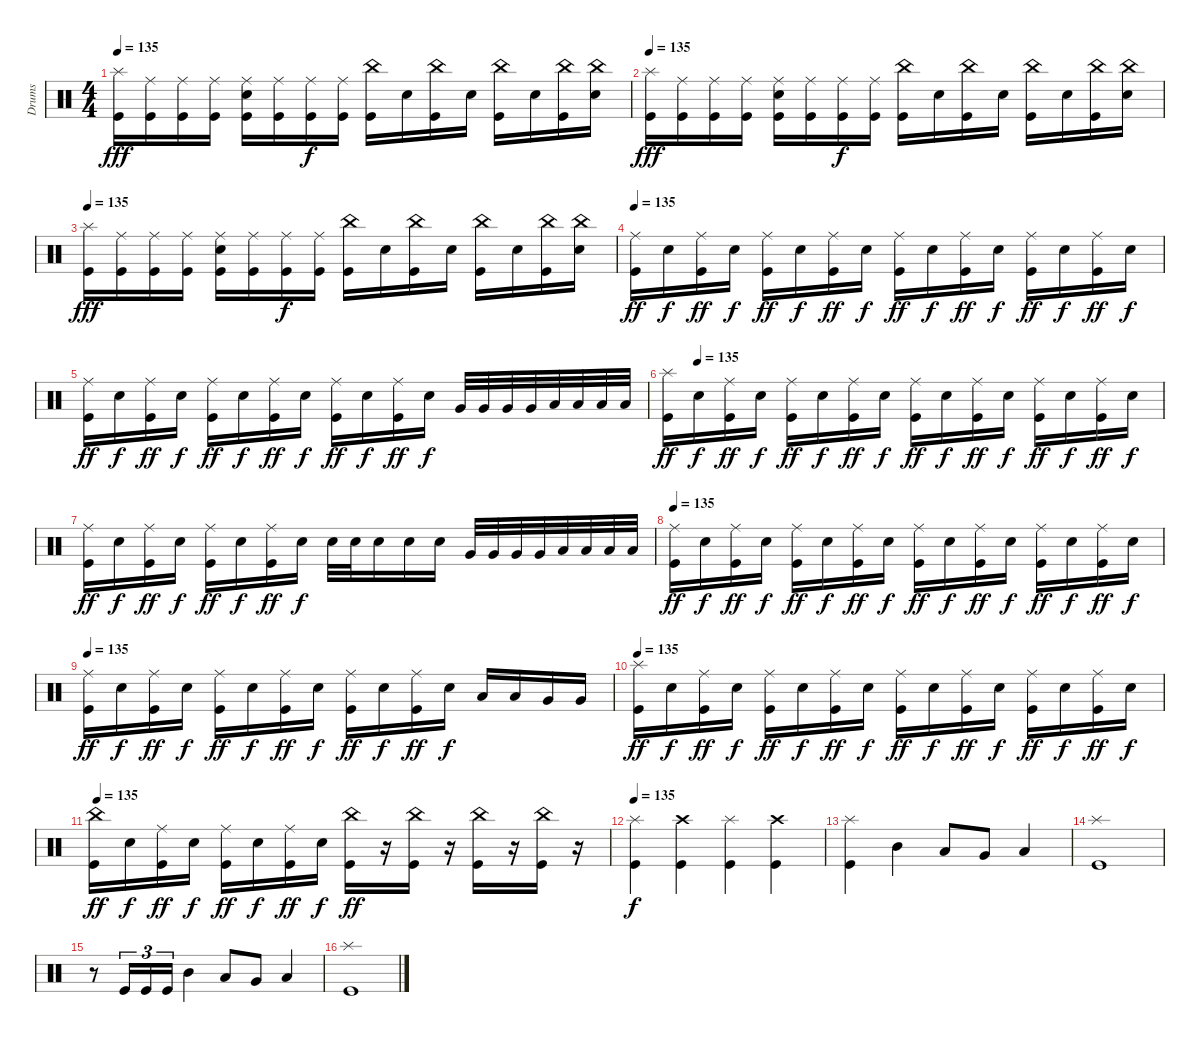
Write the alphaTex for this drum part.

\track ("Drums" "Drums") {instrument percussion}
\staff {score}
\articulation defaults
\ts (4 4)
\tempo 135
\clef neutral
\ks c
("Splash (hit)" "Kick (hit)").16{dy fff} ("Ride (middle)" "Kick (hit)").16 ("Ride (middle)" "Kick (hit)").16 ("Ride (middle)" "Kick (hit)").16 ("Ride (middle)" "Electric Snare (hit)" "Kick (hit)").16 ("Ride (middle)" "Kick (hit)").16 ("Ride (middle)" "Kick (hit)").16{dy f} ("Ride (middle)" "Kick (hit)").16 ("China (hit)" "Kick (hit)").16 "Electric Snare (hit)".16 ("China (hit)" "Kick (hit)").16 "Electric Snare (hit)".16 ("China (hit)" "Kick (hit)").16 "Electric Snare (hit)".16 ("China (hit)" "Kick (hit)").16 ("China (hit)" "Electric Snare (hit)").16 |
\tempo 135
("Splash (hit)" "Kick (hit)").16{dy fff} ("Ride (middle)" "Kick (hit)").16 ("Ride (middle)" "Kick (hit)").16 ("Ride (middle)" "Kick (hit)").16 ("Ride (middle)" "Electric Snare (hit)" "Kick (hit)").16 ("Ride (middle)" "Kick (hit)").16 ("Ride (middle)" "Kick (hit)").16{dy f} ("Ride (middle)" "Kick (hit)").16 ("China (hit)" "Kick (hit)").16 "Electric Snare (hit)".16 ("China (hit)" "Kick (hit)").16 "Electric Snare (hit)".16 ("China (hit)" "Kick (hit)").16 "Electric Snare (hit)".16 ("China (hit)" "Kick (hit)").16 ("China (hit)" "Electric Snare (hit)").16 |
\tempo 135
("Splash (hit)" "Kick (hit)").16{dy fff} ("Ride (middle)" "Kick (hit)").16 ("Ride (middle)" "Kick (hit)").16 ("Ride (middle)" "Kick (hit)").16 ("Ride (middle)" "Electric Snare (hit)" "Kick (hit)").16 ("Ride (middle)" "Kick (hit)").16 ("Ride (middle)" "Kick (hit)").16{dy f} ("Ride (middle)" "Kick (hit)").16 ("China (hit)" "Kick (hit)").16 "Electric Snare (hit)".16 ("China (hit)" "Kick (hit)").16 "Electric Snare (hit)".16 ("China (hit)" "Kick (hit)").16 "Electric Snare (hit)".16 ("China (hit)" "Kick (hit)").16 ("China (hit)" "Electric Snare (hit)").16 |
\tempo 135
("Ride (middle)" "Kick (hit)").16{dy ff} "Electric Snare (hit)".16{dy f} ("Ride (middle)" "Kick (hit)").16{dy ff} "Electric Snare (hit)".16{dy f} ("Ride (middle)" "Kick (hit)").16{dy ff} "Electric Snare (hit)".16{dy f} ("Ride (middle)" "Kick (hit)").16{dy ff} "Electric Snare (hit)".16{dy f} ("Ride (middle)" "Kick (hit)").16{dy ff} "Electric Snare (hit)".16{dy f} ("Ride (middle)" "Kick (hit)").16{dy ff} "Electric Snare (hit)".16{dy f} ("Ride (middle)" "Kick (hit)").16{dy ff} "Electric Snare (hit)".16{dy f} ("Ride (middle)" "Kick (hit)").16{dy ff} "Electric Snare (hit)".16{dy f} |
("Ride (middle)" "Kick (hit)").16{dy ff} "Electric Snare (hit)".16{dy f} ("Ride (middle)" "Kick (hit)").16{dy ff} "Electric Snare (hit)".16{dy f} ("Ride (middle)" "Kick (hit)").16{dy ff} "Electric Snare (hit)".16{dy f} ("Ride (middle)" "Kick (hit)").16{dy ff} "Electric Snare (hit)".16{dy f} ("Ride (middle)" "Kick (hit)").16{dy ff} "Electric Snare (hit)".16{dy f} ("Ride (middle)" "Kick (hit)").16{dy ff} "Electric Snare (hit)".16{dy f} "Very Low Tom (hit)".32 "Very Low Tom (hit)".32 "Very Low Tom (hit)".32 "Very Low Tom (hit)".32 "Low Floor Tom (hit)".32 "Low Floor Tom (hit)".32 "Low Floor Tom (hit)".32 "Low Floor Tom (hit)".32 |
\tempo (135 0.0625)
("Splash (hit)" "Kick (hit)").16{dy ff} "Electric Snare (hit)".16{dy f} ("Ride (middle)" "Kick (hit)").16{dy ff} "Electric Snare (hit)".16{dy f} ("Ride (middle)" "Kick (hit)").16{dy ff} "Electric Snare (hit)".16{dy f} ("Ride (middle)" "Kick (hit)").16{dy ff} "Electric Snare (hit)".16{dy f} ("Ride (middle)" "Kick (hit)").16{dy ff} "Electric Snare (hit)".16{dy f} ("Ride (middle)" "Kick (hit)").16{dy ff} "Electric Snare (hit)".16{dy f} ("Ride (middle)" "Kick (hit)").16{dy ff} "Electric Snare (hit)".16{dy f} ("Ride (middle)" "Kick (hit)").16{dy ff} "Electric Snare (hit)".16{dy f} |
("Ride (middle)" "Kick (hit)").16{dy ff} "Electric Snare (hit)".16{dy f} ("Ride (middle)" "Kick (hit)").16{dy ff} "Electric Snare (hit)".16{dy f} ("Ride (middle)" "Kick (hit)").16{dy ff} "Electric Snare (hit)".16{dy f} ("Ride (middle)" "Kick (hit)").16{dy ff} "Electric Snare (hit)".16{dy f} "Electric Snare (hit)".32 "Electric Snare (hit)".32 "Electric Snare (hit)".16 "Electric Snare (hit)".16 "Electric Snare (hit)".16 "Very Low Tom (hit)".32 "Very Low Tom (hit)".32 "Very Low Tom (hit)".32 "Very Low Tom (hit)".32 "Low Floor Tom (hit)".32 "Low Floor Tom (hit)".32 "Low Floor Tom (hit)".32 "Low Floor Tom (hit)".32 |
\tempo 135
("Ride (middle)" "Kick (hit)").16{dy ff} "Electric Snare (hit)".16{dy f} ("Ride (middle)" "Kick (hit)").16{dy ff} "Electric Snare (hit)".16{dy f} ("Ride (middle)" "Kick (hit)").16{dy ff} "Electric Snare (hit)".16{dy f} ("Ride (middle)" "Kick (hit)").16{dy ff} "Electric Snare (hit)".16{dy f} ("Ride (middle)" "Kick (hit)").16{dy ff} "Electric Snare (hit)".16{dy f} ("Ride (middle)" "Kick (hit)").16{dy ff} "Electric Snare (hit)".16{dy f} ("Ride (middle)" "Kick (hit)").16{dy ff} "Electric Snare (hit)".16{dy f} ("Ride (middle)" "Kick (hit)").16{dy ff} "Electric Snare (hit)".16{dy f} |
\tempo 135
("Ride (middle)" "Kick (hit)").16{dy ff} "Electric Snare (hit)".16{dy f} ("Ride (middle)" "Kick (hit)").16{dy ff} "Electric Snare (hit)".16{dy f} ("Ride (middle)" "Kick (hit)").16{dy ff} "Electric Snare (hit)".16{dy f} ("Ride (middle)" "Kick (hit)").16{dy ff} "Electric Snare (hit)".16{dy f} ("Ride (middle)" "Kick (hit)").16{dy ff} "Electric Snare (hit)".16{dy f} ("Ride (middle)" "Kick (hit)").16{dy ff} "Electric Snare (hit)".16{dy f} "Low Tom (hit)".16 "Low Tom (hit)".16 "Very Low Tom (hit)".16 "Very Low Tom (hit)".16 |
\tempo 135
("Splash (hit)" "Kick (hit)").16{dy ff} "Electric Snare (hit)".16{dy f} ("Ride (middle)" "Kick (hit)").16{dy ff} "Electric Snare (hit)".16{dy f} ("Ride (middle)" "Kick (hit)").16{dy ff} "Electric Snare (hit)".16{dy f} ("Ride (middle)" "Kick (hit)").16{dy ff} "Electric Snare (hit)".16{dy f} ("Ride (middle)" "Kick (hit)").16{dy ff} "Electric Snare (hit)".16{dy f} ("Ride (middle)" "Kick (hit)").16{dy ff} "Electric Snare (hit)".16{dy f} ("Ride (middle)" "Kick (hit)").16{dy ff} "Electric Snare (hit)".16{dy f} ("Ride (middle)" "Kick (hit)").16{dy ff} "Electric Snare (hit)".16{dy f} |
\tempo 135
("China (hit)" "Kick (hit)").16{dy ff} "Electric Snare (hit)".16{dy f} ("Ride (middle)" "Kick (hit)").16{dy ff} "Electric Snare (hit)".16{dy f} ("Ride (middle)" "Kick (hit)").16{dy ff} "Electric Snare (hit)".16{dy f} ("Ride (middle)" "Kick (hit)").16{dy ff} "Electric Snare (hit)".16{dy f} ("China (hit)" "Kick (hit)").16{dy ff} r.16 ("China (hit)" "Kick (hit)").16 r.16 ("China (hit)" "Kick (hit)").16 r.16 ("China (hit)" "Kick (hit)").16 r.16 |
\tempo 135
("Splash (hit)" "Kick (hit)").4{dy f} ("Crash high (hit)" "Kick (hit)").4 ("Splash (hit)" "Kick (hit)").4 ("Crash high (hit)" "Kick (hit)").4 |
("Splash (hit)" "Kick (hit)").4 "Mid Tom (hit)".4 "Low Tom (hit)".8 "Very Low Tom (hit)".8 "Low Floor Tom (hit)".4 |
("Splash (hit)" "Kick (hit)").1 |
r.8 "Kick (hit)".16{tu (3 2)} "Kick (hit)".16{tu (3 2)} "Kick (hit)".16{tu (3 2)} "Mid Tom (hit)".4 "Low Tom (hit)".8 "Very Low Tom (hit)".8 "Low Floor Tom (hit)".4 |
("Splash (hit)" "Kick (hit)").1
